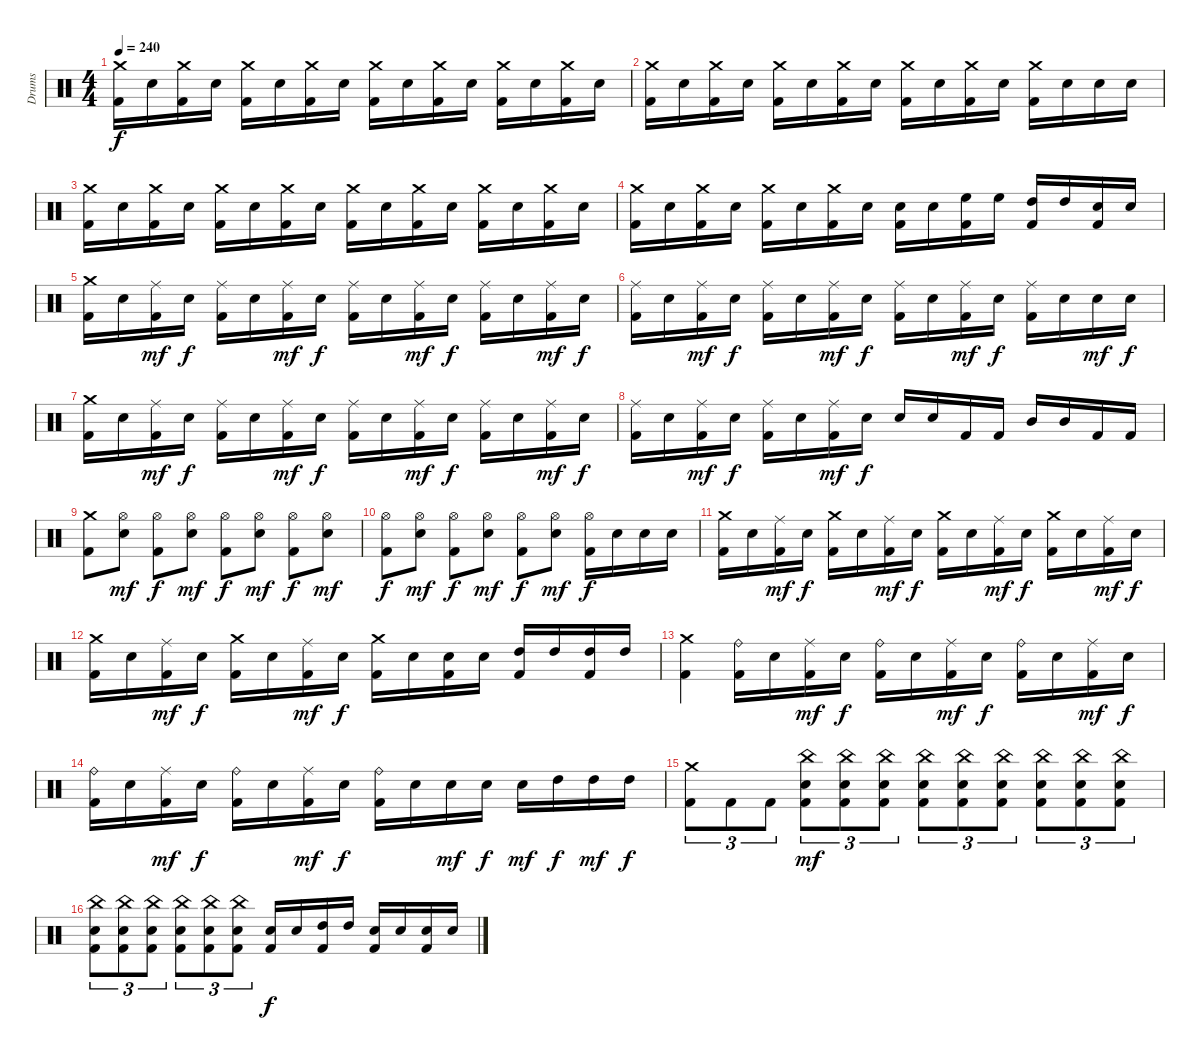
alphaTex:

\track ("Drums" "Drums") {instrument percussion}
\staff {score}
\articulation defaults
\ts (4 4)
\tempo 240
\clef neutral
\ks c
("Crash medium (hit)" "Kick (hit) 2").16{dy f} "Electric Snare (hit)".16 ("Crash medium (hit)" "Kick (hit) 2").16 "Electric Snare (hit)".16 ("Crash medium (hit)" "Kick (hit) 2").16 "Electric Snare (hit)".16 ("Crash medium (hit)" "Kick (hit) 2").16 "Electric Snare (hit)".16 ("Crash medium (hit)" "Kick (hit) 2").16 "Electric Snare (hit)".16 ("Crash medium (hit)" "Kick (hit) 2").16 "Electric Snare (hit)".16 ("Crash medium (hit)" "Kick (hit) 2").16 "Electric Snare (hit)".16 ("Crash medium (hit)" "Kick (hit) 2").16 "Electric Snare (hit)".16 |
("Crash medium (hit)" "Kick (hit) 2").16 "Electric Snare (hit)".16 ("Crash medium (hit)" "Kick (hit) 2").16 "Electric Snare (hit)".16 ("Crash medium (hit)" "Kick (hit) 2").16 "Electric Snare (hit)".16 ("Crash medium (hit)" "Kick (hit) 2").16 "Electric Snare (hit)".16 ("Crash medium (hit)" "Kick (hit) 2").16 "Electric Snare (hit)".16 ("Crash medium (hit)" "Kick (hit) 2").16 "Electric Snare (hit)".16 ("Crash medium (hit)" "Kick (hit) 2").16 "Electric Snare (hit)".16 "Electric Snare (hit)".16 "Electric Snare (hit)".16 |
("Crash medium (hit)" "Kick (hit) 2").16 "Electric Snare (hit)".16 ("Crash medium (hit)" "Kick (hit) 2").16 "Electric Snare (hit)".16 ("Crash medium (hit)" "Kick (hit) 2").16 "Electric Snare (hit)".16 ("Crash medium (hit)" "Kick (hit) 2").16 "Electric Snare (hit)".16 ("Crash medium (hit)" "Kick (hit) 2").16 "Electric Snare (hit)".16 ("Crash medium (hit)" "Kick (hit) 2").16 "Electric Snare (hit)".16 ("Crash medium (hit)" "Kick (hit) 2").16 "Electric Snare (hit)".16 ("Crash medium (hit)" "Kick (hit) 2").16 "Electric Snare (hit)".16 |
("Crash medium (hit)" "Kick (hit) 2").16 "Electric Snare (hit)".16 ("Crash medium (hit)" "Kick (hit) 2").16 "Electric Snare (hit)".16 ("Crash medium (hit)" "Kick (hit) 2").16 "Electric Snare (hit)".16 ("Crash medium (hit)" "Kick (hit) 2").16 "Electric Snare (hit)".16 ("Electric Snare (hit)" "Kick (hit) 2").16 "Electric Snare (hit)".16 ("High Floor Tom (hit)" "Kick (hit) 2").16 "High Floor Tom (hit)".16 ("High Tom (hit)" "Kick (hit) 2").16 "High Tom (hit)".16 ("Electric Snare (hit)" "Kick (hit) 2").16 "Electric Snare (hit)".16 |
("Crash medium (hit)" "Kick (hit) 2").16 "Electric Snare (hit)".16 ("Ride (middle)" "Kick (hit) 2").16{dy mf} "Electric Snare (hit)".16{dy f} ("Ride (middle)" "Kick (hit) 2").16 "Electric Snare (hit)".16 ("Ride (middle)" "Kick (hit) 2").16{dy mf} "Electric Snare (hit)".16{dy f} ("Ride (middle)" "Kick (hit) 2").16 "Electric Snare (hit)".16 ("Ride (middle)" "Kick (hit) 2").16{dy mf} "Electric Snare (hit)".16{dy f} ("Ride (middle)" "Kick (hit) 2").16 "Electric Snare (hit)".16 ("Ride (middle)" "Kick (hit) 2").16{dy mf} "Electric Snare (hit)".16{dy f} |
("Ride (middle)" "Kick (hit) 2").16 "Electric Snare (hit)".16 ("Ride (middle)" "Kick (hit) 2").16{dy mf} "Electric Snare (hit)".16{dy f} ("Ride (middle)" "Kick (hit) 2").16 "Electric Snare (hit)".16 ("Ride (middle)" "Kick (hit) 2").16{dy mf} "Electric Snare (hit)".16{dy f} ("Ride (middle)" "Kick (hit) 2").16 "Electric Snare (hit)".16 ("Ride (middle)" "Kick (hit) 2").16{dy mf} "Electric Snare (hit)".16{dy f} ("Ride (middle)" "Kick (hit) 2").16 "Electric Snare (hit)".16 "Electric Snare (hit)".16{dy mf} "Electric Snare (hit)".16{dy f} |
("Crash medium (hit)" "Kick (hit) 2").16 "Electric Snare (hit)".16 ("Ride (middle)" "Kick (hit) 2").16{dy mf} "Electric Snare (hit)".16{dy f} ("Ride (middle)" "Kick (hit) 2").16 "Electric Snare (hit)".16 ("Ride (middle)" "Kick (hit) 2").16{dy mf} "Electric Snare (hit)".16{dy f} ("Ride (middle)" "Kick (hit) 2").16 "Electric Snare (hit)".16 ("Ride (middle)" "Kick (hit) 2").16{dy mf} "Electric Snare (hit)".16{dy f} ("Ride (middle)" "Kick (hit) 2").16 "Electric Snare (hit)".16 ("Ride (middle)" "Kick (hit) 2").16{dy mf} "Electric Snare (hit)".16{dy f} |
("Ride (middle)" "Kick (hit) 2").16 "Electric Snare (hit)".16 ("Ride (middle)" "Kick (hit) 2").16{dy mf} "Electric Snare (hit)".16{dy f} ("Ride (middle)" "Kick (hit) 2").16 "Electric Snare (hit)".16 ("Ride (middle)" "Kick (hit) 2").16{dy mf} "Electric Snare (hit)".16{dy f} "Electric Snare (hit)".16 "Electric Snare (hit)".16 "Kick (hit) 2".16 "Kick (hit) 2".16 "Mid Tom (hit)".16 "Mid Tom (hit)".16 "Kick (hit) 2".16 "Kick (hit) 2".16 |
("Crash medium (hit)" "Kick (hit) 2").8 ("Hi-Hat (open)" "Electric Snare (hit)").8{dy mf} ("Hi-Hat (open)" "Kick (hit) 2").8{dy f} ("Hi-Hat (open)" "Electric Snare (hit)").8{dy mf} ("Hi-Hat (open)" "Kick (hit) 2").8{dy f} ("Hi-Hat (open)" "Electric Snare (hit)").8{dy mf} ("Hi-Hat (open)" "Kick (hit) 2").8{dy f} ("Hi-Hat (open)" "Electric Snare (hit)").8{dy mf} |
("Hi-Hat (open)" "Kick (hit) 2").8{dy f} ("Hi-Hat (open)" "Electric Snare (hit)").8{dy mf} ("Hi-Hat (open)" "Kick (hit) 2").8{dy f} ("Hi-Hat (open)" "Electric Snare (hit)").8{dy mf} ("Hi-Hat (open)" "Kick (hit) 2").8{dy f} ("Hi-Hat (open)" "Electric Snare (hit)").8{dy mf} ("Hi-Hat (open)" "Kick (hit) 2").16{dy f} "Electric Snare (hit)".16 "Electric Snare (hit)".16 "Electric Snare (hit)".16 |
("Crash medium (hit)" "Kick (hit) 2").16 "Electric Snare (hit)".16 ("Ride (middle)" "Kick (hit) 2").16{dy mf} "Electric Snare (hit)".16{dy f} ("Crash medium (hit)" "Kick (hit) 2").16 "Electric Snare (hit)".16 ("Ride (middle)" "Kick (hit) 2").16{dy mf} "Electric Snare (hit)".16{dy f} ("Crash medium (hit)" "Kick (hit) 2").16 "Electric Snare (hit)".16 ("Ride (middle)" "Kick (hit) 2").16{dy mf} "Electric Snare (hit)".16{dy f} ("Crash medium (hit)" "Kick (hit) 2").16 "Electric Snare (hit)".16 ("Ride (middle)" "Kick (hit) 2").16{dy mf} "Electric Snare (hit)".16{dy f} |
("Crash medium (hit)" "Kick (hit) 2").16 "Electric Snare (hit)".16 ("Ride (middle)" "Kick (hit) 2").16{dy mf} "Electric Snare (hit)".16{dy f} ("Crash medium (hit)" "Kick (hit) 2").16 "Electric Snare (hit)".16 ("Ride (middle)" "Kick (hit) 2").16{dy mf} "Electric Snare (hit)".16{dy f} ("Crash medium (hit)" "Kick (hit) 2").16 "Electric Snare (hit)".16 ("Electric Snare (hit)" "Kick (hit) 2").16 "Electric Snare (hit)".16 ("High Tom (hit)" "Kick (hit) 2").16 "High Tom (hit)".16 ("High Tom (hit)" "Kick (hit) 2").16 "High Tom (hit)".16 |
("Crash medium (hit)" "Kick (hit) 2").4 ("Ride (bell)" "Kick (hit) 2").16 "Electric Snare (hit)".16 ("Ride (middle)" "Kick (hit) 2").16{dy mf} "Electric Snare (hit)".16{dy f} ("Ride (bell)" "Kick (hit) 2").16 "Electric Snare (hit)".16 ("Ride (middle)" "Kick (hit) 2").16{dy mf} "Electric Snare (hit)".16{dy f} ("Ride (bell)" "Kick (hit) 2").16 "Electric Snare (hit)".16 ("Ride (middle)" "Kick (hit) 2").16{dy mf} "Electric Snare (hit)".16{dy f} |
("Ride (bell)" "Kick (hit) 2").16 "Electric Snare (hit)".16 ("Ride (middle)" "Kick (hit) 2").16{dy mf} "Electric Snare (hit)".16{dy f} ("Ride (bell)" "Kick (hit) 2").16 "Electric Snare (hit)".16 ("Ride (middle)" "Kick (hit) 2").16{dy mf} "Electric Snare (hit)".16{dy f} ("Ride (bell)" "Kick (hit) 2").16 "Electric Snare (hit)".16 "Electric Snare (hit)".16{dy mf} "Electric Snare (hit)".16{dy f} "Electric Snare (hit)".16{dy mf} "High Tom (hit)".16{dy f} "High Tom (hit)".16{dy mf} "High Tom (hit)".16{dy f} |
("Crash medium (hit)" "Kick (hit) 2").8{tu (3 2)} "Kick (hit) 2".8{tu (3 2)} "Kick (hit) 2".8{tu (3 2)} ("China (hit)" "Electric Snare (hit)" "Kick (hit) 2").8{tu (3 2) dy mf} ("China (hit)" "Electric Snare (hit)" "Kick (hit) 2").8{tu (3 2)} ("China (hit)" "Electric Snare (hit)" "Kick (hit) 2").8{tu (3 2)} ("China (hit)" "Electric Snare (hit)" "Kick (hit) 2").8{tu (3 2)} ("China (hit)" "Electric Snare (hit)" "Kick (hit) 2").8{tu (3 2)} ("China (hit)" "Electric Snare (hit)" "Kick (hit) 2").8{tu (3 2)} ("China (hit)" "Electric Snare (hit)" "Kick (hit) 2").8{tu (3 2)} ("China (hit)" "Electric Snare (hit)" "Kick (hit) 2").8{tu (3 2)} ("China (hit)" "Electric Snare (hit)" "Kick (hit) 2").8{tu (3 2)} |
("China (hit)" "Electric Snare (hit)" "Kick (hit) 2").8{tu (3 2)} ("China (hit)" "Electric Snare (hit)" "Kick (hit) 2").8{tu (3 2)} ("China (hit)" "Electric Snare (hit)" "Kick (hit) 2").8{tu (3 2)} ("China (hit)" "Electric Snare (hit)" "Kick (hit) 2").8{tu (3 2)} ("China (hit)" "Electric Snare (hit)" "Kick (hit) 2").8{tu (3 2)} ("China (hit)" "Electric Snare (hit)" "Kick (hit) 2").8{tu (3 2)} ("Electric Snare (hit)" "Kick (hit) 2").16{dy f} "Electric Snare (hit)".16 ("High Tom (hit)" "Kick (hit) 2").16 "High Tom (hit)".16 ("Electric Snare (hit)" "Kick (hit) 2").16 "Electric Snare (hit)".16 ("Electric Snare (hit)" "Kick (hit) 2").16 "Electric Snare (hit)".16
